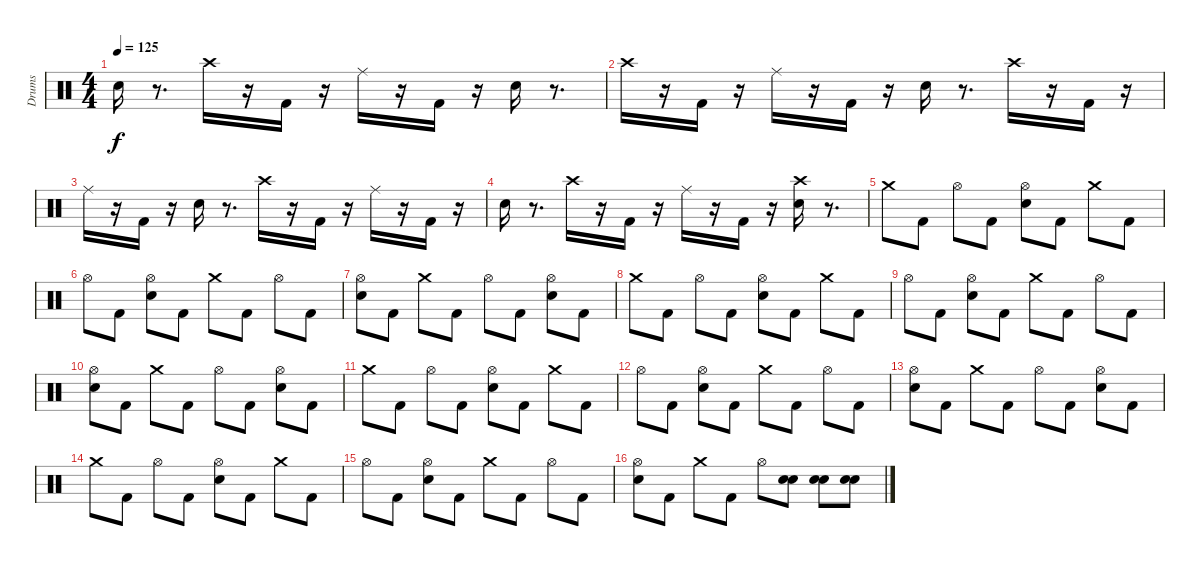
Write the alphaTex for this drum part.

\track ("Drums" "Drums") {instrument percussion}
\staff {score}
\articulation defaults
\ts (4 4)
\tempo 125
\clef neutral
\ks c "Snare (hit) 2".16{dy f}
r.8{d} "Crash high (hit)".16 r.16 "Kick (hit) 2".16 r.16 "Ride (middle)".16 r.16 "Kick (hit) 2".16 r.16 "Snare (hit) 2".16 r.8{d} |
"Crash high (hit)".16 r.16 "Kick (hit) 2".16 r.16 "Ride (middle)".16 r.16 "Kick (hit) 2".16 r.16 "Snare (hit) 2".16 r.8{d} "Crash high (hit)".16 r.16 "Kick (hit) 2".16 r.16 |
"Ride (middle)".16 r.16 "Kick (hit) 2".16 r.16 "Snare (hit) 2".16 r.8{d} "Crash high (hit)".16 r.16 "Kick (hit) 2".16 r.16 "Ride (middle)".16 r.16 "Kick (hit) 2".16 r.16 |
"Snare (hit) 2".16 r.8{d} "Crash high (hit)".16 r.16 "Kick (hit) 2".16 r.16 "Ride (middle)".16 r.16 "Kick (hit) 2".16 r.16 ("Crash high (hit)" "Snare (hit) 2").16 r.8{d} |
"Crash medium (hit)".8 "Kick (hit) 2".8 "Hi-Hat (open)".8 "Kick (hit) 2".8 ("Hi-Hat (open)" "Snare (hit) 2").8 "Kick (hit) 2".8 "Crash medium (hit)".8 "Kick (hit) 2".8 |
"Hi-Hat (open)".8 "Kick (hit) 2".8 ("Hi-Hat (open)" "Snare (hit) 2").8 "Kick (hit) 2".8 "Crash medium (hit)".8 "Kick (hit) 2".8 "Hi-Hat (open)".8 "Kick (hit) 2".8 |
("Hi-Hat (open)" "Snare (hit) 2").8 "Kick (hit) 2".8 "Crash medium (hit)".8 "Kick (hit) 2".8 "Hi-Hat (open)".8 "Kick (hit) 2".8 ("Hi-Hat (open)" "Snare (hit) 2").8 "Kick (hit) 2".8 |
"Crash medium (hit)".8 "Kick (hit) 2".8 "Hi-Hat (open)".8 "Kick (hit) 2".8 ("Hi-Hat (open)" "Snare (hit) 2").8 "Kick (hit) 2".8 "Crash medium (hit)".8 "Kick (hit) 2".8 |
"Hi-Hat (open)".8 "Kick (hit) 2".8 ("Hi-Hat (open)" "Snare (hit) 2").8 "Kick (hit) 2".8 "Crash medium (hit)".8 "Kick (hit) 2".8 "Hi-Hat (open)".8 "Kick (hit) 2".8 |
("Hi-Hat (open)" "Snare (hit) 2").8 "Kick (hit) 2".8 "Crash medium (hit)".8 "Kick (hit) 2".8 "Hi-Hat (open)".8 "Kick (hit) 2".8 ("Hi-Hat (open)" "Snare (hit) 2").8 "Kick (hit) 2".8 |
"Crash medium (hit)".8 "Kick (hit) 2".8 "Hi-Hat (open)".8 "Kick (hit) 2".8 ("Hi-Hat (open)" "Snare (hit) 2").8 "Kick (hit) 2".8 "Crash medium (hit)".8 "Kick (hit) 2".8 |
"Hi-Hat (open)".8 "Kick (hit) 2".8 ("Hi-Hat (open)" "Snare (hit) 2").8 "Kick (hit) 2".8 "Crash medium (hit)".8 "Kick (hit) 2".8 "Hi-Hat (open)".8 "Kick (hit) 2".8 |
("Hi-Hat (open)" "Snare (hit) 2").8 "Kick (hit) 2".8 "Crash medium (hit)".8 "Kick (hit) 2".8 "Hi-Hat (open)".8 "Kick (hit) 2".8 ("Hi-Hat (open)" "Snare (hit) 2").8 "Kick (hit) 2".8 |
"Crash medium (hit)".8 "Kick (hit) 2".8 "Hi-Hat (open)".8 "Kick (hit) 2".8 ("Hi-Hat (open)" "Snare (hit) 2").8 "Kick (hit) 2".8 "Crash medium (hit)".8 "Kick (hit) 2".8 |
"Hi-Hat (open)".8 "Kick (hit) 2".8 ("Hi-Hat (open)" "Snare (hit) 2").8 "Kick (hit) 2".8 "Crash medium (hit)".8 "Kick (hit) 2".8 "Hi-Hat (open)".8 "Kick (hit) 2".8 |
("Hi-Hat (open)" "Snare (hit) 2").8 "Kick (hit) 2".8 "Crash medium (hit)".8 "Kick (hit) 2".8 "Hi-Hat (open)".8 ("Snare (hit) 2" "Electric Snare (hit)").8 ("Snare (hit) 2" "Electric Snare (hit)").8 ("Snare (hit) 2" "Electric Snare (hit)").8
